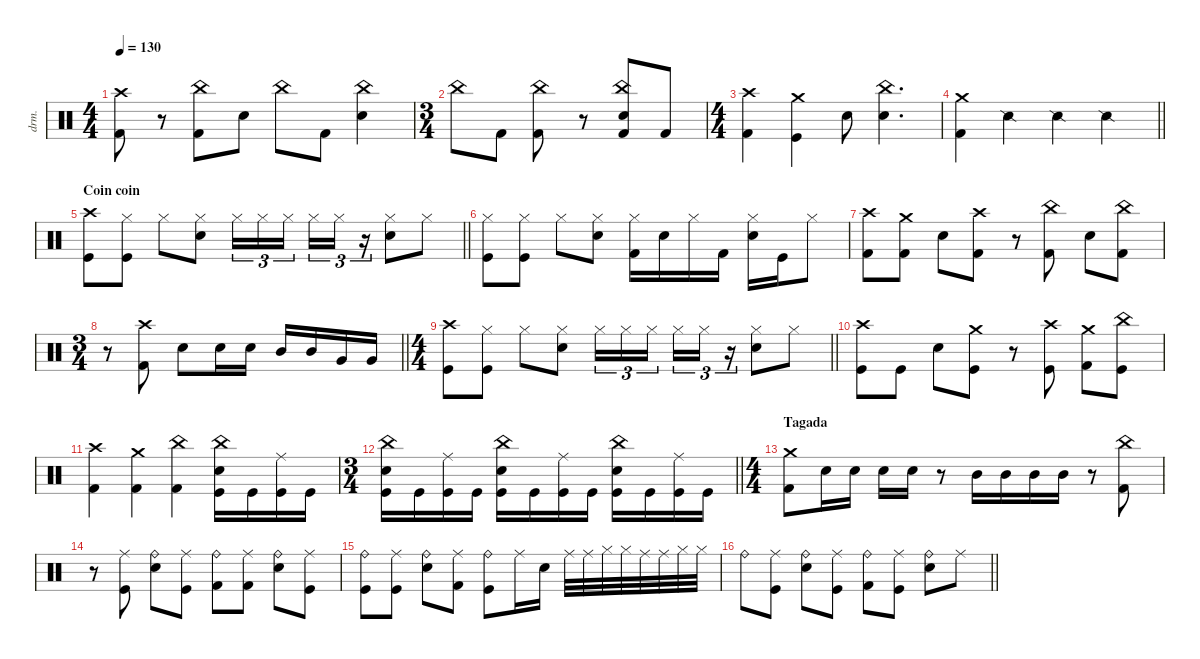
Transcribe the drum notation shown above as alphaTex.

\defaultSystemsLayout 4
\hideDynamics
\bracketExtendMode nobrackets
\otherSystemsTrackNameOrientation horizontal
\track ("Manouche" "drm.") {instrument percussion}
\staff {score}
\articulation defaults
\ts (4 4)
\tempo 130
\clef neutral
\ks c
("Crash high (hit)" "Kick (hit) 2").8{dy f} r.8 ("China (hit)" "Kick (hit) 2").8 "Snare (hit) 2".8 "China (hit)".8 "Kick (hit) 2".8 ("China (hit)" "Snare (hit) 2").4 |
\ts (3 4)
\beaming (8 2 2 2 2)
"China (hit)".8 "Kick (hit) 2".8 ("China (hit)" "Kick (hit) 2").8 r.8 ("China (hit)" "Snare (hit) 2" "Kick (hit) 2").8 "Kick (hit) 2".8 |
\ts (4 4)
\beaming (8 2 2 2 2)
("Kick (hit) 2" "Crash high (hit)").4 ("Crash medium (hit)" "Kick (hit)").4 "Snare (hit) 2".8 ("China (hit)" "Snare (hit) 2").4{d} |
\barLineRight lightlight
("Kick (hit) 2" "Crash medium (hit)").4 "Snare (side stick) 2".4 "Snare (side stick) 2".4 "Snare (side stick) 2".4 |
\section ("" "Coin coin")
\barLineRight lightlight
("Crash high (hit)" "Kick (hit)").8 ("Hi-Hat (closed)" "Kick (hit)").8 "Hi-Hat (closed)".8 ("Hi-Hat (closed)" "Snare (hit) 2").8 "Hi-Hat (closed)".16{tu (3 2) dy mp} "Hi-Hat (closed)".16{tu (3 2)} "Hi-Hat (closed)".16{tu (3 2)} "Hi-Hat (closed)".16{tu (3 2)} "Hi-Hat (closed)".16{tu (3 2)} r.16{tu (3 2)} ("Snare (hit) 2" "Hi-Hat (closed)").8{dy f} "Hi-Hat (closed)".8 |
("Hi-Hat (closed)" "Kick (hit)").8 ("Hi-Hat (closed)" "Kick (hit)").8 "Hi-Hat (closed)".8 ("Hi-Hat (closed)" "Snare (hit) 2").8 ("Hi-Hat (closed)" "Kick (hit) 2").16 "Snare (hit) 2".16 "Hi-Hat (closed)".16 "Kick (hit) 2".16 ("Hi-Hat (closed)" "Snare (hit) 2").16 "Kick (hit)".16 "Hi-Hat (closed)".8 |
("Crash high (hit)" "Kick (hit) 2").8 ("Crash medium (hit)" "Kick (hit) 2").8 "Snare (hit) 2".8 ("Kick (hit) 2" "Crash high (hit)").8 r.8 ("Kick (hit) 2" "China (hit)").8 "Snare (hit) 2".8 ("Kick (hit) 2" "China (hit)").8 |
\ts (3 4)
\beaming (8 2 2 2)
\barLineRight lightlight
r.8 ("Crash high (hit)" "Kick (hit) 2").8 "Snare (hit) 2".8 "Snare (hit) 2".16 "Snare (hit) 2".16 "Mid Tom (hit)".16 "Mid Tom (hit)".16 "Very Low Tom (hit)".16 "Very Low Tom (hit)".16 |
\ts (4 4)
\beaming (8 2 2 2 2)
\barLineRight lightlight
("Crash high (hit)" "Kick (hit)").8 ("Hi-Hat (closed)" "Kick (hit)").8 "Hi-Hat (closed)".8 ("Hi-Hat (closed)" "Snare (hit) 2").8 "Hi-Hat (closed)".16{tu (3 2) dy mf} "Hi-Hat (closed)".16{tu (3 2) dy mp} "Hi-Hat (closed)".16{tu (3 2) dy mf} "Hi-Hat (closed)".16{tu (3 2)} "Hi-Hat (closed)".16{tu (3 2) dy mp} r.16{tu (3 2)} ("Snare (hit) 2" "Hi-Hat (closed)").8{dy f} "Hi-Hat (closed)".8 |
("Crash high (hit)" "Kick (hit)").8 "Kick (hit)".8 "Snare (hit) 2".8 ("Crash medium (hit)" "Kick (hit)").8 r.8 ("Crash high (hit)" "Kick (hit)").8 ("Kick (hit) 2" "Crash medium (hit)").8 ("China (hit)" "Kick (hit)").8 |
("Kick (hit) 2" "Crash high (hit)").4 ("Crash medium (hit)" "Kick (hit) 2").4 ("China (hit)" "Kick (hit) 2").4 ("China (hit)" "Snare (hit) 2" "Kick (hit)").16 "Kick (hit)".16 ("Ride (middle)" "Kick (hit)").16 "Kick (hit)".16 |
\ts (3 4)
\beaming (8 2 2 2)
\barLineRight lightlight
("China (hit)" "Snare (hit) 2" "Kick (hit)").16 "Kick (hit)".16 ("Ride (middle)" "Kick (hit)").16 "Kick (hit)".16 ("China (hit)" "Snare (hit) 2" "Kick (hit)").16 "Kick (hit)".16 ("Ride (middle)" "Kick (hit)").16 "Kick (hit)".16 ("China (hit)" "Snare (hit) 2" "Kick (hit)").16 "Kick (hit)".16 ("Kick (hit)" "Ride (middle)").16 "Kick (hit)".16 |
\ts (4 4)
\beaming (8 2 2 2 2)
\section ("" "Tagada")
("Crash medium (hit)" "Kick (hit) 2").8 "Snare (hit) 2".16 "Snare (hit) 2".16 "Snare (hit) 2".16 "Snare (hit) 2".16 r.8 "Mid Tom (hit)".16 "Mid Tom (hit)".16 "Mid Tom (hit)".16 "Mid Tom (hit)".16 r.8 ("China (hit)" "Kick (hit) 2").8 |
r.8 ("Ride (middle)" "Kick (hit)").8{dy mp} ("Snare (hit) 2" "Ride (bell)").8{dy f} ("Kick (hit)" "Ride (middle)").8 ("Ride (bell)" "Kick (hit) 2").8 ("Ride (middle)" "Kick (hit) 2").8{dy mp} ("Ride (bell)" "Snare (hit) 2").8{dy f} ("Ride (middle)" "Kick (hit)").8{dy mp} |
("Kick (hit)" "Ride (bell)").8{dy f} ("Kick (hit)" "Ride (middle)").8 ("Ride (bell)" "Snare (hit) 2").8 ("Ride (middle)" "Kick (hit) 2").8{dy mp} ("Ride (bell)" "Kick (hit)").8{dy f} "Ride (middle)".16{dy mp} "Snare (hit) 2".16{dy f} "Ride (middle)".32 "Ride (middle)".32 "Hi-Hat (closed)".32 "Hi-Hat (closed)".32 "Ride (middle)".32 "Ride (middle)".32 "Hi-Hat (closed)".32 "Hi-Hat (closed)".32 |
\barLineRight lightlight "Ride (bell)".8
("Kick (hit)" "Ride (middle)").8 ("Snare (hit) 2" "Ride (bell)").8 ("Ride (middle)" "Kick (hit)").8{dy mp} ("Ride (bell)" "Kick (hit) 2").8{dy f} ("Ride (middle)" "Kick (hit)").8{dy mp} ("Snare (hit) 2" "Ride (bell)").8{dy f} "Ride (middle)".8{dy mp}
